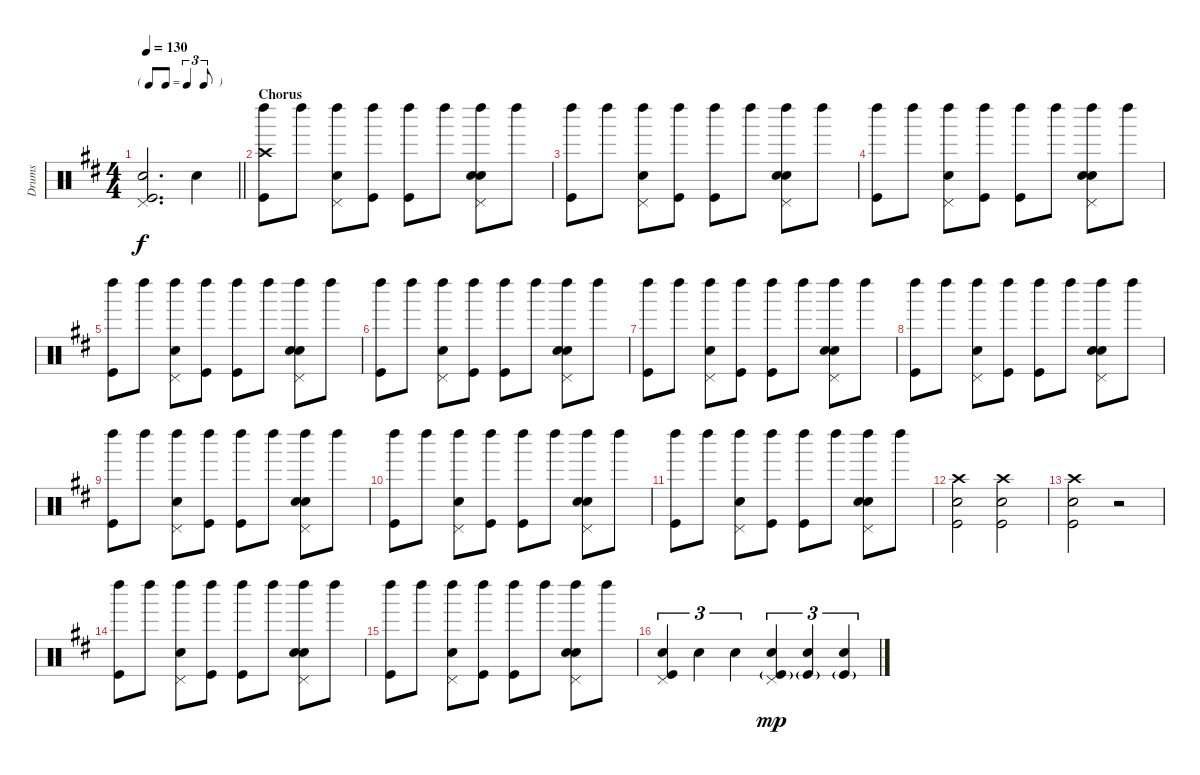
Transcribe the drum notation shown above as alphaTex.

\track ("Drums" "Drums") {instrument percussion}
\staff {score}
\articulation defaults
\ts (4 4)
\tf triplet8th
\tempo 130
\clef neutral
\barLineRight lightlight
\ks d
("Pedal Hi-Hat (hit)" "Snare (hit) 2" "Kick (hit)").2{d dy f} "Snare (hit) 2".4 |
\section ("" "Chorus")
("Left Maraca (hit)" "Crash high (hit)" "Kick (hit)").8 "Left Maraca (hit)".8 ("Left Maraca (hit)" "Pedal Hi-Hat (hit)" "Snare (hit) 2").8 ("Left Maraca (hit)" "Kick (hit)").8 ("Left Maraca (hit)" "Kick (hit)").8 "Left Maraca (hit)".8 ("Left Maraca (hit)" "Pedal Hi-Hat (hit)" "Snare (hit) 2" "Hand Clap (hit)").8 "Left Maraca (hit)".8 |
("Left Maraca (hit)" "Kick (hit)").8 "Left Maraca (hit)".8 ("Left Maraca (hit)" "Pedal Hi-Hat (hit)" "Snare (hit) 2").8 ("Left Maraca (hit)" "Kick (hit)").8 ("Left Maraca (hit)" "Kick (hit)").8 "Left Maraca (hit)".8 ("Left Maraca (hit)" "Pedal Hi-Hat (hit)" "Snare (hit) 2" "Hand Clap (hit)").8 "Left Maraca (hit)".8 |
("Left Maraca (hit)" "Kick (hit)").8 "Left Maraca (hit)".8 ("Left Maraca (hit)" "Pedal Hi-Hat (hit)" "Snare (hit) 2").8 ("Left Maraca (hit)" "Kick (hit)").8 ("Left Maraca (hit)" "Kick (hit)").8 "Left Maraca (hit)".8 ("Left Maraca (hit)" "Pedal Hi-Hat (hit)" "Snare (hit) 2" "Hand Clap (hit)").8 "Left Maraca (hit)".8 |
("Left Maraca (hit)" "Kick (hit)").8 "Left Maraca (hit)".8 ("Left Maraca (hit)" "Pedal Hi-Hat (hit)" "Snare (hit) 2").8 ("Left Maraca (hit)" "Kick (hit)").8 ("Left Maraca (hit)" "Kick (hit)").8 "Left Maraca (hit)".8 ("Left Maraca (hit)" "Pedal Hi-Hat (hit)" "Snare (hit) 2" "Hand Clap (hit)").8 "Left Maraca (hit)".8 |
("Left Maraca (hit)" "Kick (hit)").8 "Left Maraca (hit)".8 ("Left Maraca (hit)" "Pedal Hi-Hat (hit)" "Snare (hit) 2").8 ("Left Maraca (hit)" "Kick (hit)").8 ("Left Maraca (hit)" "Kick (hit)").8 "Left Maraca (hit)".8 ("Left Maraca (hit)" "Pedal Hi-Hat (hit)" "Snare (hit) 2" "Hand Clap (hit)").8 "Left Maraca (hit)".8 |
("Left Maraca (hit)" "Kick (hit)").8 "Left Maraca (hit)".8 ("Left Maraca (hit)" "Pedal Hi-Hat (hit)" "Snare (hit) 2").8 ("Left Maraca (hit)" "Kick (hit)").8 ("Left Maraca (hit)" "Kick (hit)").8 "Left Maraca (hit)".8 ("Left Maraca (hit)" "Pedal Hi-Hat (hit)" "Snare (hit) 2" "Hand Clap (hit)").8 "Left Maraca (hit)".8 |
("Left Maraca (hit)" "Kick (hit)").8 "Left Maraca (hit)".8 ("Left Maraca (hit)" "Pedal Hi-Hat (hit)" "Snare (hit) 2").8 ("Left Maraca (hit)" "Kick (hit)").8 ("Left Maraca (hit)" "Kick (hit)").8 "Left Maraca (hit)".8 ("Left Maraca (hit)" "Pedal Hi-Hat (hit)" "Snare (hit) 2" "Hand Clap (hit)").8 "Left Maraca (hit)".8 |
("Left Maraca (hit)" "Kick (hit)").8 "Left Maraca (hit)".8 ("Left Maraca (hit)" "Pedal Hi-Hat (hit)" "Snare (hit) 2").8 ("Left Maraca (hit)" "Kick (hit)").8 ("Left Maraca (hit)" "Kick (hit)").8 "Left Maraca (hit)".8 ("Left Maraca (hit)" "Pedal Hi-Hat (hit)" "Snare (hit) 2" "Hand Clap (hit)").8 "Left Maraca (hit)".8 |
("Left Maraca (hit)" "Kick (hit)").8 "Left Maraca (hit)".8 ("Left Maraca (hit)" "Pedal Hi-Hat (hit)" "Snare (hit) 2").8 ("Left Maraca (hit)" "Kick (hit)").8 ("Left Maraca (hit)" "Kick (hit)").8 "Left Maraca (hit)".8 ("Left Maraca (hit)" "Pedal Hi-Hat (hit)" "Snare (hit) 2" "Hand Clap (hit)").8 "Left Maraca (hit)".8 |
("Left Maraca (hit)" "Kick (hit)").8 "Left Maraca (hit)".8 ("Left Maraca (hit)" "Pedal Hi-Hat (hit)" "Snare (hit) 2").8 ("Left Maraca (hit)" "Kick (hit)").8 ("Left Maraca (hit)" "Kick (hit)").8 "Left Maraca (hit)".8 ("Left Maraca (hit)" "Pedal Hi-Hat (hit)" "Snare (hit) 2" "Hand Clap (hit)").8 "Left Maraca (hit)".8 |
("Crash high (hit)" "Snare (hit) 2" "Kick (hit)").2 ("Crash high (hit)" "Snare (hit) 2" "Kick (hit)").2 |
("Crash high (hit)" "Snare (hit) 2" "Kick (hit)").2 r.2 |
("Left Maraca (hit)" "Kick (hit)").8 "Left Maraca (hit)".8 ("Left Maraca (hit)" "Pedal Hi-Hat (hit)" "Snare (hit) 2").8 ("Left Maraca (hit)" "Kick (hit)").8 ("Left Maraca (hit)" "Kick (hit)").8 "Left Maraca (hit)".8 ("Left Maraca (hit)" "Pedal Hi-Hat (hit)" "Snare (hit) 2" "Hand Clap (hit)").8 "Left Maraca (hit)".8 |
("Left Maraca (hit)" "Kick (hit)").8 "Left Maraca (hit)".8 ("Left Maraca (hit)" "Pedal Hi-Hat (hit)" "Snare (hit) 2").8 ("Left Maraca (hit)" "Kick (hit)").8 ("Left Maraca (hit)" "Kick (hit)").8 "Left Maraca (hit)".8 ("Left Maraca (hit)" "Pedal Hi-Hat (hit)" "Snare (hit) 2" "Hand Clap (hit)").8 "Left Maraca (hit)".8 |
("Pedal Hi-Hat (hit)" "Snare (hit) 2" "Kick (hit)").4{tu (3 2)} "Snare (hit) 2".4{tu (3 2)} "Snare (hit) 2".4{tu (3 2)} ("Pedal Hi-Hat (hit)" "Snare (hit) 2" "Kick (hit)"{g}).4{tu (3 2) dy mp} ("Snare (hit) 2" "Kick (hit)"{g}).4{tu (3 2)} ("Snare (hit) 2" "Kick (hit)"{g}).4{tu (3 2)}
